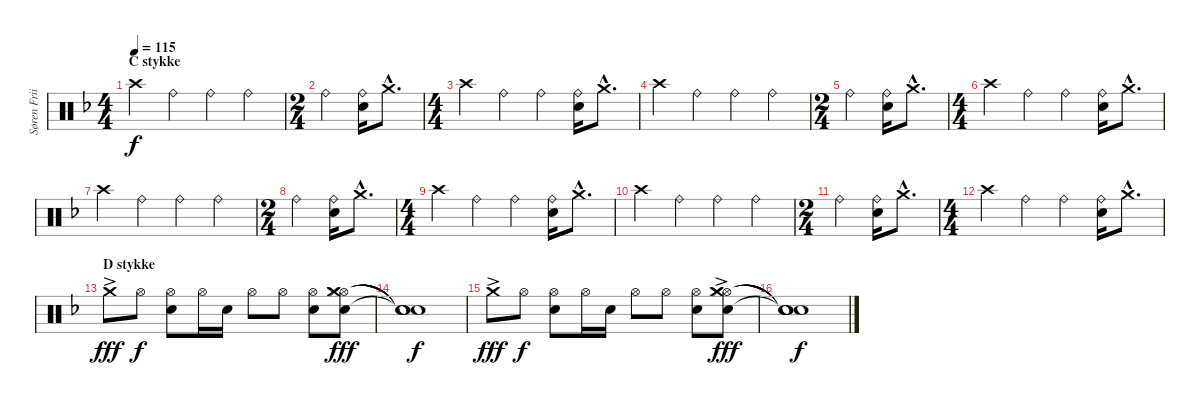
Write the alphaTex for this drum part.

\track ("Søren Friis (Drums)" "Søren Frii") {instrument percussion}
\staff {score}
\articulation defaults
\ts (4 4)
\section ("" "C stykke")
\tempo 115
\clef neutral
\ks f "Crash high (hit)".4{dy f} "Ride (bell)".4 "Ride (bell)".4 "Ride (bell)".4
|
\ts (2 4)
"Ride (bell)".4 ("Ride (bell)" "Snare (hit) 2").16 "Crash medium (hit)"{hac}.8{d} |
\ts (4 4)
"Crash high (hit)".4 "Ride (bell)".4 "Ride (bell)".4 ("Ride (bell)" "Snare (hit) 2").16 "Crash medium (hit)"{hac}.8{d} |
"Crash high (hit)".4 "Ride (bell)".4 "Ride (bell)".4 "Ride (bell)".4 |
\ts (2 4)
"Ride (bell)".4 ("Ride (bell)" "Snare (hit) 2").16 "Crash medium (hit)"{hac}.8{d} |
\ts (4 4)
"Crash high (hit)".4 "Ride (bell)".4 "Ride (bell)".4 ("Ride (bell)" "Snare (hit) 2").16 "Crash medium (hit)"{hac}.8{d} |
"Crash high (hit)".4 "Ride (bell)".4 "Ride (bell)".4 "Ride (bell)".4 |
\ts (2 4)
"Ride (bell)".4 ("Ride (bell)" "Snare (hit) 2").16 "Crash medium (hit)"{hac}.8{d} |
\ts (4 4)
"Crash high (hit)".4 "Ride (bell)".4 "Ride (bell)".4 ("Ride (bell)" "Snare (hit) 2").16 "Crash medium (hit)"{hac}.8{d} |
"Crash high (hit)".4 "Ride (bell)".4 "Ride (bell)".4 "Ride (bell)".4 |
\ts (2 4)
"Ride (bell)".4 ("Ride (bell)" "Snare (hit) 2").16 "Crash medium (hit)"{hac}.8{d} |
\ts (4 4)
"Crash high (hit)".4 "Ride (bell)".4 "Ride (bell)".4 ("Ride (bell)" "Snare (hit) 2").16 "Crash medium (hit)"{hac}.8{d} |
\section ("" "D stykke")
"Crash medium (hit)"{ac}.8{dy fff} "Hi-Hat (open)".8{dy f} ("Hi-Hat (open)" "Snare (hit) 2").8 "Hi-Hat (open)".16 "Snare (hit) 2".16 "Hi-Hat (open)".8 "Hi-Hat (open)".8 ("Hi-Hat (open)" "Snare (hit) 2").8 ("Hi-Hat (open)" "Hi-Hat (closed)" "Hand Clap (hit)" "Crash medium (hit)").8{dy fff} |
("Snare (hit)"{t} "Snare (hit)"{t} "Snare (hit)"{t} "Snare (hit)"{t}).1{dy f} |
"Crash medium (hit)"{ac}.8{dy fff} "Hi-Hat (open)".8{dy f} ("Hi-Hat (open)" "Snare (hit) 2").8 "Hi-Hat (open)".16 "Snare (hit) 2".16 "Hi-Hat (open)".8 "Hi-Hat (open)".8 ("Hi-Hat (open)" "Snare (hit) 2").8 ("Hi-Hat (open)" "Hi-Hat (closed)" "Hand Clap (hit)" "Crash medium (hit)"{ac}).8{dy fff} |
("Snare (hit)"{t} "Snare (hit)"{t} "Snare (hit)"{t} "Snare (hit)"{t}).1{dy f}
